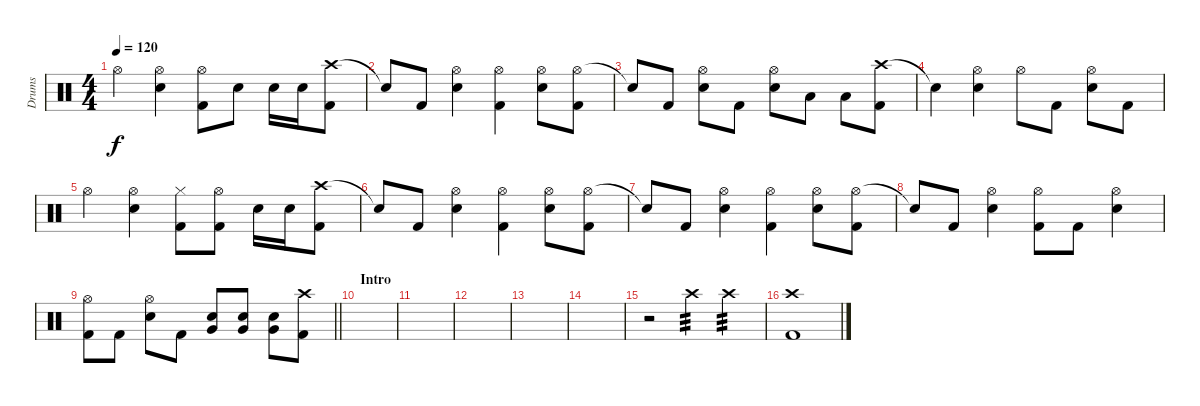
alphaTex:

\track ("Drums" "Drums") {instrument percussion}
\staff {score}
\articulation defaults
\ts (4 4)
\tempo 120
\clef neutral
\ks c "Hi-Hat (open)".4{dy f}
("Hi-Hat (open)" "Snare (hit) 2").4 ("Hi-Hat (open)" "Kick (hit) 2").8 "Snare (hit) 2".8 "Snare (hit) 2".16 "Snare (hit) 2".16 ("Crash high (hit)" "Kick (hit) 2").8 |
"Snare (hit)"{t}.8 "Kick (hit) 2".8 ("Hi-Hat (open)" "Snare (hit) 2").4 ("Hi-Hat (open)" "Kick (hit) 2").4 ("Hi-Hat (open)" "Snare (hit) 2").8 ("Hi-Hat (open)" "Kick (hit) 2").8 |
"Snare (hit)"{t}.8 "Kick (hit) 2".8 ("Hi-Hat (open)" "Snare (hit) 2").8 "Kick (hit) 2".8 ("Hi-Hat (open)" "Snare (hit) 2").8 "Low Tom (hit)".8 "Low Tom (hit)".8 ("Crash high (hit)" "Kick (hit) 2").8 |
"Snare (hit)"{t}.4 ("Hi-Hat (open)" "Snare (hit) 2").4 "Hi-Hat (open)".8 "Kick (hit) 2".8 ("Hi-Hat (open)" "Snare (hit) 2").8 "Kick (hit) 2".8 |
"Hi-Hat (open)".4 ("Hi-Hat (open)" "Snare (hit) 2").4 ("Hi-Hat (closed)" "Kick (hit) 2").8 ("Hi-Hat (open)" "Kick (hit) 2").8 "Snare (hit) 2".16 "Snare (hit) 2".16 ("Crash high (hit)" "Kick (hit) 2").8 |
"Snare (hit)"{t}.8 "Kick (hit) 2".8 ("Hi-Hat (open)" "Snare (hit) 2").4 ("Hi-Hat (open)" "Kick (hit) 2").4 ("Hi-Hat (open)" "Snare (hit) 2").8 ("Hi-Hat (open)" "Kick (hit) 2").8 |
"Snare (hit)"{t}.8 "Kick (hit) 2".8 ("Hi-Hat (open)" "Snare (hit) 2").4 ("Hi-Hat (open)" "Kick (hit) 2").4 ("Hi-Hat (open)" "Snare (hit) 2").8 ("Hi-Hat (open)" "Kick (hit) 2").8 |
"Snare (hit)"{t}.8 "Kick (hit) 2".8 ("Hi-Hat (open)" "Snare (hit) 2").4 ("Hi-Hat (open)" "Kick (hit) 2").8 "Kick (hit) 2".8 ("Hi-Hat (open)" "Snare (hit) 2").4 |
\barLineRight lightlight
("Hi-Hat (open)" "Kick (hit) 2").8 "Kick (hit) 2".8 ("Hi-Hat (open)" "Snare (hit) 2").8 "Kick (hit) 2".8 ("Snare (hit) 2" "Very Low Tom (hit)").8 ("Snare (hit) 2" "Very Low Tom (hit)").8 ("Snare (hit) 2" "Very Low Tom (hit)").8 ("Crash high (hit)" "Kick (hit) 2").8 |
\section ("" "Intro")
|
|
|
|
|
r.2 "Crash high (hit)".4{tp 3} "Crash high (hit)".4{tp 3} |
("Crash high (hit)" "Kick (hit) 2").1
